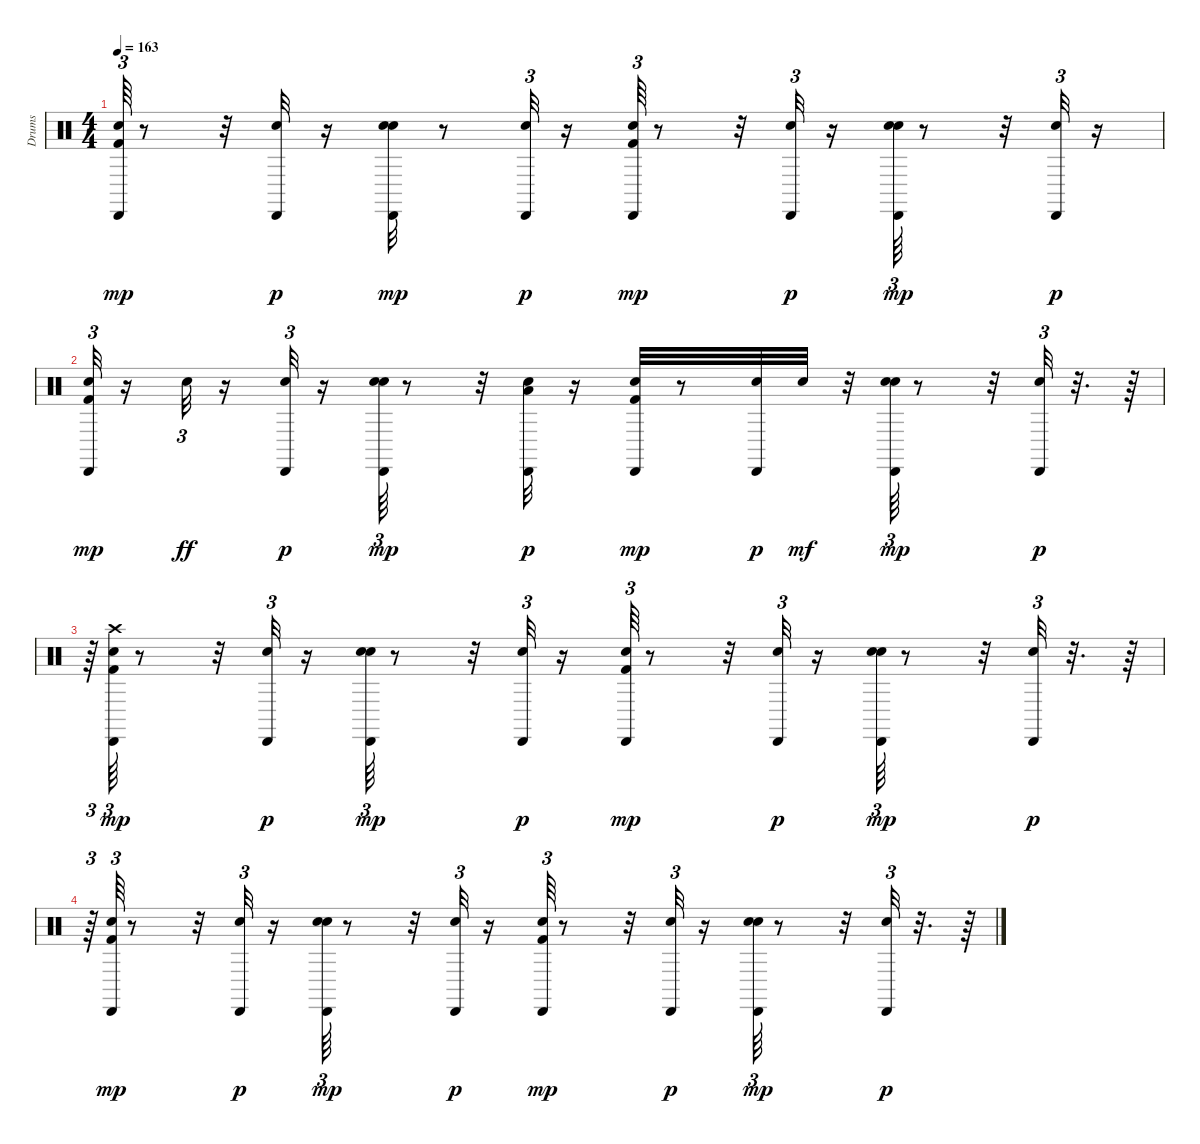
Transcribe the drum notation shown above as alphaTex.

\track ("Drums               " "Drums     ") {instrument percussion}
\staff {score}
\articulation defaults
\ts (4 4)
\tempo 163
\clef neutral
\ks c
("Kick (hit) 2" "Snare (hit) 2" "Cabasa (hit)").64{tu (3 2) dy mp} r.8 r.32 ("Snare (hit) 2" "Cabasa (hit)").32{dy p} r.16 ("Snare (hit) 2" "Hand Clap (hit)" "Cabasa (hit)").32{dy mp} r.8 ("Snare (hit) 2" "Cabasa (hit)").32{tu (3 2) dy p} r.16 ("Kick (hit) 2" "Snare (hit) 2" "Cabasa (hit)").64{tu (3 2) dy mp} r.8 r.32 ("Snare (hit) 2" "Cabasa (hit)").32{tu (3 2) dy p} r.16 ("Snare (hit) 2" "Hand Clap (hit)" "Cabasa (hit)").64{tu (3 2) dy mp} r.8 r.32 ("Snare (hit) 2" "Cabasa (hit)").32{tu (3 2) dy p} r.16 |
("Kick (hit) 2" "Snare (hit) 2" "Cabasa (hit)").32{tu (3 2) dy mp} r.16 "Snare (hit) 2".32{tu (3 2) dy ff} r.16 ("Snare (hit) 2" "Cabasa (hit)").32{tu (3 2) dy p} r.16 ("Snare (hit) 2" "Hand Clap (hit)" "Cabasa (hit)").64{tu (3 2) dy mp} r.8 r.32 ("Snare (hit) 2" "Low Tom (hit)" "Cabasa (hit)").32{dy p} r.16 ("Kick (hit) 2" "Snare (hit) 2" "Cabasa (hit)").32{dy mp} r.8 ("Snare (hit) 2" "Cabasa (hit)").32{dy p} "Snare (hit) 2".32{dy mf} r.32 ("Snare (hit) 2" "Hand Clap (hit)" "Cabasa (hit)").64{tu (3 2) dy mp} r.8 r.32 ("Snare (hit) 2" "Cabasa (hit)").32{tu (3 2) dy p} r.32{d} r.64 |
r.64{tu (3 2)} ("Kick (hit) 2" "Snare (hit) 2" "Crash high (hit)" "Cabasa (hit)").64{tu (3 2) dy mp} r.8 r.32 ("Snare (hit) 2" "Cabasa (hit)").32{tu (3 2) dy p} r.16 ("Snare (hit) 2" "Hand Clap (hit)" "Cabasa (hit)").64{tu (3 2) dy mp} r.8 r.32 ("Snare (hit) 2" "Cabasa (hit)").32{tu (3 2) dy p} r.16 ("Kick (hit) 2" "Snare (hit) 2" "Cabasa (hit)").64{tu (3 2) dy mp} r.8 r.32 ("Snare (hit) 2" "Cabasa (hit)").32{tu (3 2) dy p} r.16 ("Snare (hit) 2" "Hand Clap (hit)" "Cabasa (hit)").64{tu (3 2) dy mp} r.8 r.32 ("Snare (hit) 2" "Cabasa (hit)").32{tu (3 2) dy p} r.32{d} r.64 |
r.64{tu (3 2)} ("Kick (hit) 2" "Snare (hit) 2" "Cabasa (hit)").64{tu (3 2) dy mp} r.8 r.32 ("Snare (hit) 2" "Cabasa (hit)").32{tu (3 2) dy p} r.16 ("Snare (hit) 2" "Hand Clap (hit)" "Cabasa (hit)").64{tu (3 2) dy mp} r.8 r.32 ("Snare (hit) 2" "Cabasa (hit)").32{tu (3 2) dy p} r.16 ("Kick (hit) 2" "Snare (hit) 2" "Cabasa (hit)").64{tu (3 2) dy mp} r.8 r.32 ("Snare (hit) 2" "Cabasa (hit)").32{tu (3 2) dy p} r.16 ("Snare (hit) 2" "Hand Clap (hit)" "Cabasa (hit)").64{tu (3 2) dy mp} r.8 r.32 ("Snare (hit) 2" "Cabasa (hit)").32{tu (3 2) dy p} r.32{d} r.64
